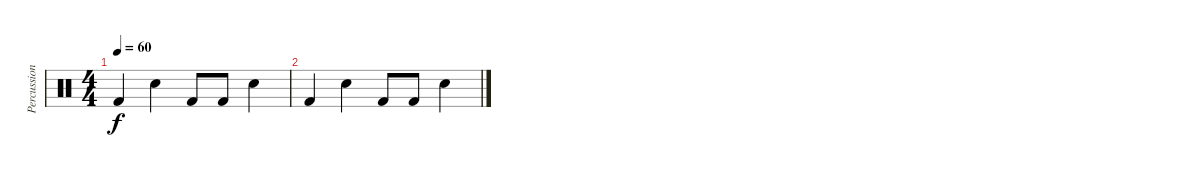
\track ("Percussion" "Percussion") {instrument percussion}
\staff {score}
\articulation defaults
\ts (4 4)
\tempo 60
\clef neutral
\ks c "Kick (hit) 2".4{dy f} "Electric Snare (hit)".4 "Kick (hit) 2".8 "Kick (hit) 2".8 "Electric Snare (hit)".4
|
"Kick (hit) 2".4 "Electric Snare (hit)".4 "Kick (hit) 2".8 "Kick (hit) 2".8 "Electric Snare (hit)".4
